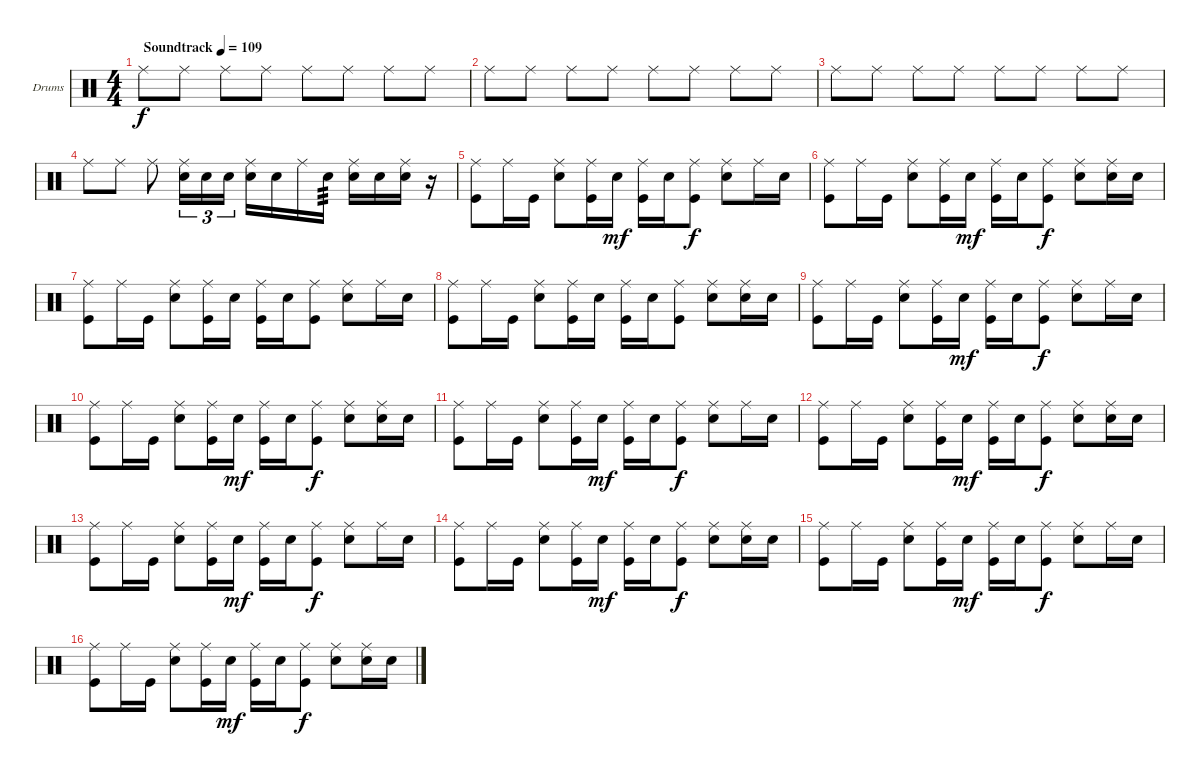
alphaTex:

\bracketExtendMode groupsimilarinstruments
\firstSystemTrackNameOrientation horizontal
\otherSystemsTrackNameOrientation horizontal
\track ("Drumkit" "Drums") {instrument percussion}
\staff {score}
\articulation defaults
\ts (4 4)
\beaming (8 2 2 2 2)
\tempo (109 "Soundtrack")
\clef neutral
\ks c "Ride (middle)".8{dy f} "Ride (middle)".8 "Ride (middle)".8 "Ride (middle)".8 "Ride (middle)".8 "Ride (middle)".8 "Ride (middle)".8 "Ride (middle)".8
|
"Ride (middle)".8 "Ride (middle)".8 "Ride (middle)".8 "Ride (middle)".8 "Ride (middle)".8 "Ride (middle)".8 "Ride (middle)".8 "Ride (middle)".8 |
"Ride (middle)".8 "Ride (middle)".8 "Ride (middle)".8 "Ride (middle)".8 "Ride (middle)".8 "Ride (middle)".8 "Ride (middle)".8 "Ride (middle)".8 |
"Ride (middle)".8 "Ride (middle)".8 "Ride (middle)".8 ("Snare (hit) 2" "Ride (middle)").16{tu (3 2)} "Snare (hit) 2".16{tu (3 2)} "Snare (hit) 2".16{tu (3 2)} ("Snare (hit) 2" "Ride (middle)").16 "Snare (hit) 2".16 "Ride (middle)".16 "Snare (hit) 2".16{tp 3} ("Snare (hit) 2" "Ride (middle)").16 "Snare (hit) 2".16 ("Snare (hit) 2" "Ride (middle)").16 r.16 |
("Kick (hit)" "Ride (middle)").8 "Ride (middle)".16 "Kick (hit)".16 ("Snare (hit) 2" "Ride (middle)").8 ("Kick (hit)" "Ride (middle)").16 "Snare (hit) 2".16{dy mf} ("Kick (hit)" "Ride (middle)").16 "Snare (hit) 2".16 ("Kick (hit)" "Ride (middle)").8{dy f} ("Snare (hit) 2" "Ride (middle)").8 "Ride (middle)".16 "Snare (hit) 2".16 |
("Kick (hit)" "Ride (middle)").8 "Ride (middle)".16 "Kick (hit)".16 ("Snare (hit) 2" "Ride (middle)").8 ("Kick (hit)" "Ride (middle)").16 "Snare (hit) 2".16{dy mf} ("Kick (hit)" "Ride (middle)").16 "Snare (hit) 2".16 ("Kick (hit)" "Ride (middle)").8{dy f} ("Snare (hit) 2" "Ride (middle)").8 ("Ride (middle)" "Snare (hit) 2").16 "Snare (hit) 2".16 |
("Kick (hit)" "Ride (middle)").8 "Ride (middle)".16 "Kick (hit)".16 ("Snare (hit) 2" "Ride (middle)").8 ("Kick (hit)" "Ride (middle)").16 "Snare (hit) 2".16 ("Kick (hit)" "Ride (middle)").16 "Snare (hit) 2".16 ("Kick (hit)" "Ride (middle)").8 ("Snare (hit) 2" "Ride (middle)").8 "Ride (middle)".16 "Snare (hit) 2".16 |
("Kick (hit)" "Ride (middle)").8 "Ride (middle)".16 "Kick (hit)".16 ("Snare (hit) 2" "Ride (middle)").8 ("Kick (hit)" "Ride (middle)").16 "Snare (hit) 2".16 ("Kick (hit)" "Ride (middle)").16 "Snare (hit) 2".16 ("Kick (hit)" "Ride (middle)").8 ("Snare (hit) 2" "Ride (middle)").8 ("Ride (middle)" "Snare (hit) 2").16 "Snare (hit) 2".16 |
("Kick (hit)" "Ride (middle)").8 "Ride (middle)".16 "Kick (hit)".16 ("Snare (hit) 2" "Ride (middle)").8 ("Kick (hit)" "Ride (middle)").16 "Snare (hit) 2".16{dy mf} ("Kick (hit)" "Ride (middle)").16 "Snare (hit) 2".16 ("Kick (hit)" "Ride (middle)").8{dy f} ("Snare (hit) 2" "Ride (middle)").8 "Ride (middle)".16 "Snare (hit) 2".16 |
("Kick (hit)" "Ride (middle)").8 "Ride (middle)".16 "Kick (hit)".16 ("Snare (hit) 2" "Ride (middle)").8 ("Kick (hit)" "Ride (middle)").16 "Snare (hit) 2".16{dy mf} ("Kick (hit)" "Ride (middle)").16 "Snare (hit) 2".16 ("Kick (hit)" "Ride (middle)").8{dy f} ("Snare (hit) 2" "Ride (middle)").8 ("Ride (middle)" "Snare (hit) 2").16 "Snare (hit) 2".16 |
("Kick (hit)" "Ride (middle)").8 "Ride (middle)".16 "Kick (hit)".16 ("Snare (hit) 2" "Ride (middle)").8 ("Kick (hit)" "Ride (middle)").16 "Snare (hit) 2".16{dy mf} ("Kick (hit)" "Ride (middle)").16 "Snare (hit) 2".16 ("Kick (hit)" "Ride (middle)").8{dy f} ("Snare (hit) 2" "Ride (middle)").8 "Ride (middle)".16 "Snare (hit) 2".16 |
("Kick (hit)" "Ride (middle)").8 "Ride (middle)".16 "Kick (hit)".16 ("Snare (hit) 2" "Ride (middle)").8 ("Kick (hit)" "Ride (middle)").16 "Snare (hit) 2".16{dy mf} ("Kick (hit)" "Ride (middle)").16 "Snare (hit) 2".16 ("Kick (hit)" "Ride (middle)").8{dy f} ("Snare (hit) 2" "Ride (middle)").8 ("Ride (middle)" "Snare (hit) 2").16 "Snare (hit) 2".16 |
("Kick (hit)" "Ride (middle)").8 "Ride (middle)".16 "Kick (hit)".16 ("Snare (hit) 2" "Ride (middle)").8 ("Kick (hit)" "Ride (middle)").16 "Snare (hit) 2".16{dy mf} ("Kick (hit)" "Ride (middle)").16 "Snare (hit) 2".16 ("Kick (hit)" "Ride (middle)").8{dy f} ("Snare (hit) 2" "Ride (middle)").8 "Ride (middle)".16 "Snare (hit) 2".16 |
("Kick (hit)" "Ride (middle)").8 "Ride (middle)".16 "Kick (hit)".16 ("Snare (hit) 2" "Ride (middle)").8 ("Kick (hit)" "Ride (middle)").16 "Snare (hit) 2".16{dy mf} ("Kick (hit)" "Ride (middle)").16 "Snare (hit) 2".16 ("Kick (hit)" "Ride (middle)").8{dy f} ("Snare (hit) 2" "Ride (middle)").8 ("Ride (middle)" "Snare (hit) 2").16 "Snare (hit) 2".16 |
("Kick (hit)" "Ride (middle)").8 "Ride (middle)".16 "Kick (hit)".16 ("Snare (hit) 2" "Ride (middle)").8 ("Kick (hit)" "Ride (middle)").16 "Snare (hit) 2".16{dy mf} ("Kick (hit)" "Ride (middle)").16 "Snare (hit) 2".16 ("Kick (hit)" "Ride (middle)").8{dy f} ("Snare (hit) 2" "Ride (middle)").8 "Ride (middle)".16 "Snare (hit) 2".16 |
("Kick (hit)" "Ride (middle)").8 "Ride (middle)".16 "Kick (hit)".16 ("Snare (hit) 2" "Ride (middle)").8 ("Kick (hit)" "Ride (middle)").16 "Snare (hit) 2".16{dy mf} ("Kick (hit)" "Ride (middle)").16 "Snare (hit) 2".16 ("Kick (hit)" "Ride (middle)").8{dy f} ("Snare (hit) 2" "Ride (middle)").8 ("Ride (middle)" "Snare (hit) 2").16 "Snare (hit) 2".16
